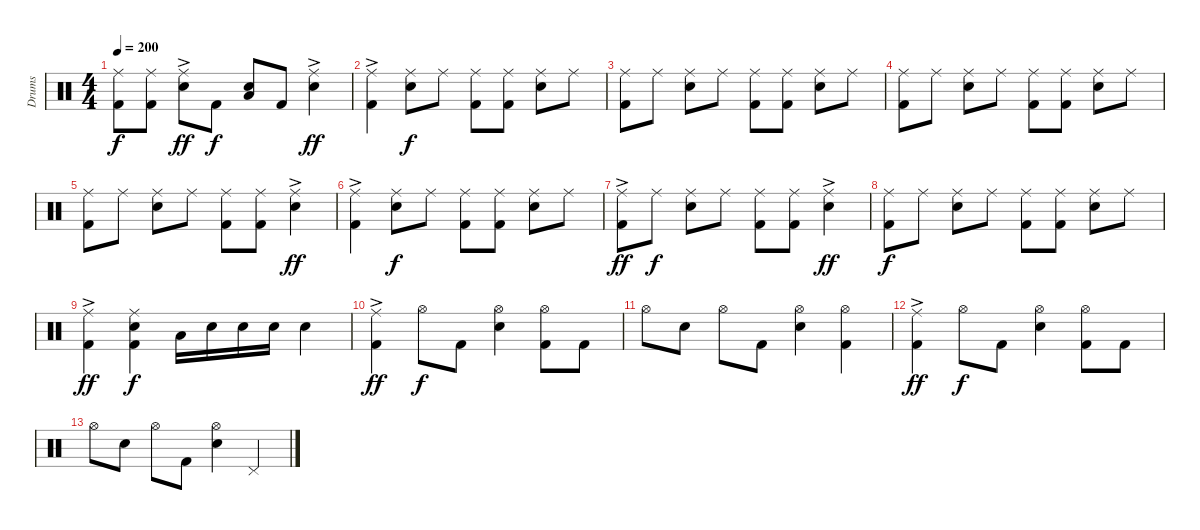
\track ("Drums" "Drums") {instrument percussion}
\staff {score}
\articulation defaults
\ts (4 4)
\tempo 200
\clef neutral
\ks c
("Ride (middle)" "Kick (hit) 2").8{dy f} ("Ride (middle)" "Kick (hit) 2").8 ("Ride (middle)"{ac} "Snare (hit) 2").8{dy ff} "Kick (hit) 2".8{dy f} ("Snare (hit) 2" "Low Tom (hit)").8 "Kick (hit) 2".8 ("Ride (middle)"{ac} "Snare (hit) 2").4{dy ff} |
("Ride (middle)"{ac} "Kick (hit) 2").4 ("Ride (middle)" "Snare (hit) 2").8{dy f} "Ride (middle)".8 ("Ride (middle)" "Kick (hit) 2").8 ("Ride (middle)" "Kick (hit) 2").8 ("Ride (middle)" "Snare (hit) 2").8 "Ride (middle)".8 |
("Ride (middle)" "Kick (hit) 2").8 "Ride (middle)".8 ("Ride (middle)" "Snare (hit) 2").8 "Ride (middle)".8 ("Ride (middle)" "Kick (hit) 2").8 ("Ride (middle)" "Kick (hit) 2").8 ("Ride (middle)" "Snare (hit) 2").8 "Ride (middle)".8 |
("Ride (middle)" "Kick (hit) 2").8 "Ride (middle)".8 ("Ride (middle)" "Snare (hit) 2").8 "Ride (middle)".8 ("Ride (middle)" "Kick (hit) 2").8 ("Ride (middle)" "Kick (hit) 2").8 ("Ride (middle)" "Snare (hit) 2").8 "Ride (middle)".8 |
("Ride (middle)" "Kick (hit) 2").8 "Ride (middle)".8 ("Ride (middle)" "Snare (hit) 2").8 "Ride (middle)".8 ("Ride (middle)" "Kick (hit) 2").8 ("Ride (middle)" "Kick (hit) 2").8 ("Ride (middle)"{ac} "Snare (hit) 2").4{dy ff} |
("Ride (middle)"{ac} "Kick (hit) 2").4 ("Ride (middle)" "Snare (hit) 2").8{dy f} "Ride (middle)".8 ("Ride (middle)" "Kick (hit) 2").8 ("Ride (middle)" "Kick (hit) 2").8 ("Ride (middle)" "Snare (hit) 2").8 "Ride (middle)".8 |
("Ride (middle)"{ac} "Kick (hit) 2").8{dy ff} "Ride (middle)".8{dy f} ("Ride (middle)" "Snare (hit) 2").8 "Ride (middle)".8 ("Ride (middle)" "Kick (hit) 2").8 ("Ride (middle)" "Kick (hit) 2").8 ("Ride (middle)"{ac} "Snare (hit) 2").4{dy ff} |
("Ride (middle)" "Kick (hit) 2").8{dy f} "Ride (middle)".8 ("Ride (middle)" "Snare (hit) 2").8 "Ride (middle)".8 ("Ride (middle)" "Kick (hit) 2").8 ("Ride (middle)" "Kick (hit) 2").8 ("Ride (middle)" "Snare (hit) 2").8 "Ride (middle)".8 |
("Ride (middle)"{ac} "Kick (hit) 2").4{dy ff} ("Ride (middle)" "Snare (hit) 2" "Kick (hit) 2").4{dy f} "Low Tom (hit)".16 "Snare (hit) 2".16 "Snare (hit) 2".16 "Snare (hit) 2".16 "Snare (hit) 2".4 |
("Ride (middle)"{ac} "Kick (hit) 2").4{dy ff} "Hi-Hat (open)".8{dy f} "Kick (hit) 2".8 ("Hi-Hat (open)" "Snare (hit) 2").4 ("Hi-Hat (open)" "Kick (hit) 2").8 "Kick (hit) 2".8 |
"Hi-Hat (open)".8 "Snare (hit) 2".8 "Hi-Hat (open)".8 "Kick (hit) 2".8 ("Hi-Hat (open)" "Snare (hit) 2").4 ("Hi-Hat (open)" "Kick (hit) 2").4 |
("Ride (middle)"{ac} "Kick (hit) 2").4{dy ff} "Hi-Hat (open)".8{dy f} "Kick (hit) 2".8 ("Hi-Hat (open)" "Snare (hit) 2").4 ("Hi-Hat (open)" "Kick (hit) 2").8 "Kick (hit) 2".8 |
"Hi-Hat (open)".8 "Snare (hit) 2".8 "Hi-Hat (open)".8 "Kick (hit) 2".8 ("Hi-Hat (open)" "Snare (hit) 2").4 "Pedal Hi-Hat (hit)".4
